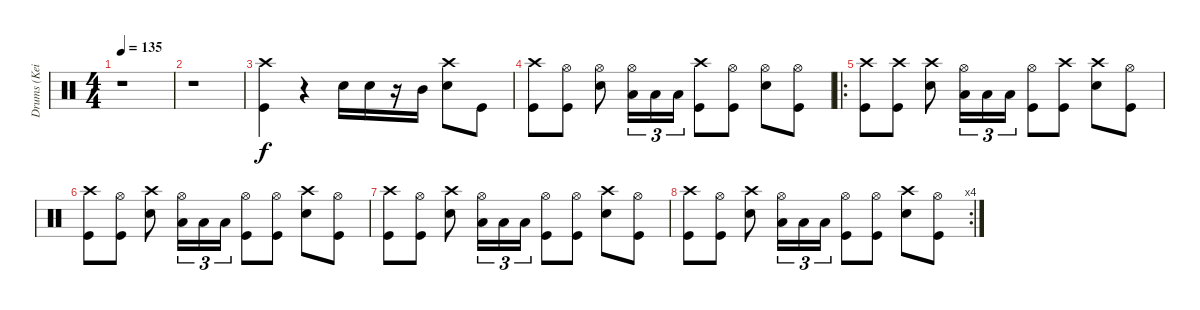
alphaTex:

\track ("Drums (Keith)" "Drums (Kei") {instrument percussion}
\staff {score}
\articulation defaults
\ts (4 4)
\tempo 135
\clef neutral
\ks c
r.1{dy f} |
r.1 |
("Crash high (hit)" "Kick (hit)").4 r.4 "Snare (hit) 2".16 "Snare (hit) 2".16 r.16 "Mid Tom (hit)".16 ("Crash high (hit)" "Snare (hit) 2").8 "Kick (hit)".8 |
("Crash high (hit)" "Kick (hit)").8 ("Hi-Hat (open)" "Kick (hit)").8 ("Hi-Hat (open)" "Snare (hit) 2").8 ("Hi-Hat (open)" "Low Tom (hit)").16{tu (3 2)} "Low Tom (hit)".16{tu (3 2)} "Low Tom (hit)".16{tu (3 2)} ("Crash high (hit)" "Kick (hit)").8 ("Hi-Hat (open)" "Kick (hit)").8 ("Hi-Hat (open)" "Snare (hit) 2").8 ("Hi-Hat (open)" "Kick (hit)").8 |
\ro
("Crash high (hit)" "Kick (hit)").8 ("Crash high (hit)" "Kick (hit)").8 ("Crash high (hit)" "Snare (hit) 2").8 ("Hi-Hat (open)" "Low Tom (hit)").16{tu (3 2)} "Low Tom (hit)".16{tu (3 2)} "Low Tom (hit)".16{tu (3 2)} ("Hi-Hat (open)" "Kick (hit)").8 ("Crash high (hit)" "Kick (hit)").8 ("Crash high (hit)" "Snare (hit) 2").8 ("Hi-Hat (open)" "Kick (hit)").8 |
("Crash high (hit)" "Kick (hit)").8 ("Hi-Hat (open)" "Kick (hit)").8 ("Crash high (hit)" "Snare (hit) 2").8 ("Hi-Hat (open)" "Low Tom (hit)").16{tu (3 2)} "Low Tom (hit)".16{tu (3 2)} "Low Tom (hit)".16{tu (3 2)} ("Hi-Hat (open)" "Kick (hit)").8 ("Hi-Hat (open)" "Kick (hit)").8 ("Crash high (hit)" "Snare (hit) 2").8 ("Hi-Hat (open)" "Kick (hit)").8 |
("Crash high (hit)" "Kick (hit)").8 ("Hi-Hat (open)" "Kick (hit)").8 ("Crash high (hit)" "Snare (hit) 2").8 ("Hi-Hat (open)" "Low Tom (hit)").16{tu (3 2)} "Low Tom (hit)".16{tu (3 2)} "Low Tom (hit)".16{tu (3 2)} ("Hi-Hat (open)" "Kick (hit)").8 ("Hi-Hat (open)" "Kick (hit)").8 ("Crash high (hit)" "Snare (hit) 2").8 ("Hi-Hat (open)" "Kick (hit)").8 |
\rc 4
("Crash high (hit)" "Kick (hit)").8 ("Hi-Hat (open)" "Kick (hit)").8 ("Crash high (hit)" "Snare (hit) 2").8 ("Hi-Hat (open)" "Low Tom (hit)").16{tu (3 2)} "Low Tom (hit)".16{tu (3 2)} "Low Tom (hit)".16{tu (3 2)} ("Hi-Hat (open)" "Kick (hit)").8 ("Hi-Hat (open)" "Kick (hit)").8 ("Crash high (hit)" "Snare (hit) 2").8 ("Hi-Hat (open)" "Kick (hit)").8
